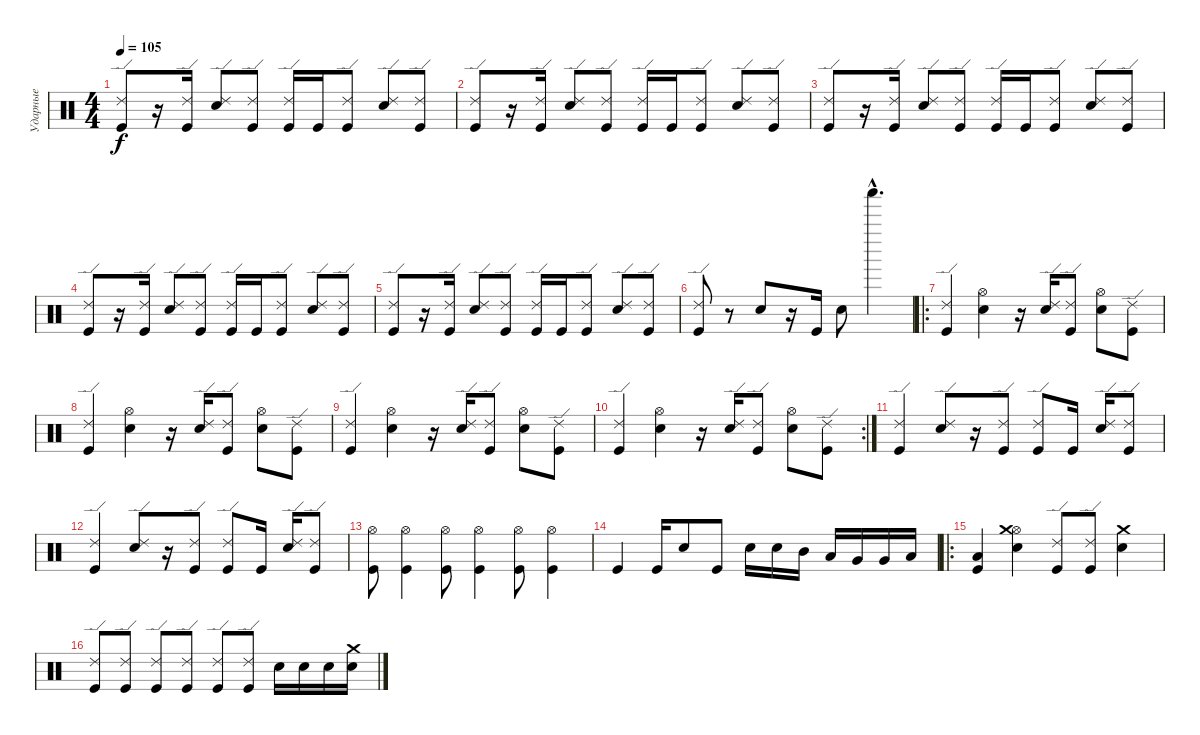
\track ("Ударные" "Ударные") {instrument percussion}
\staff {score}
\articulation defaults
\ts (4 4)
\tempo 105
\clef neutral
\ks c
("Ride (edge) 2" "Kick (hit)").8{dy f} r.16 ("Ride (edge) 2" "Kick (hit)").16 ("Ride (edge) 2" "Electric Snare (hit)").8 ("Ride (edge) 2" "Kick (hit)").8 ("Ride (edge) 2" "Kick (hit)").16 "Kick (hit)".16 ("Ride (edge) 2" "Kick (hit)").8 ("Ride (edge) 2" "Electric Snare (hit)").8 ("Ride (edge) 2" "Kick (hit)").8 |
("Ride (edge) 2" "Kick (hit)").8 r.16 ("Ride (edge) 2" "Kick (hit)").16 ("Ride (edge) 2" "Electric Snare (hit)").8 ("Ride (edge) 2" "Kick (hit)").8 ("Ride (edge) 2" "Kick (hit)").16 "Kick (hit)".16 ("Ride (edge) 2" "Kick (hit)").8 ("Ride (edge) 2" "Electric Snare (hit)").8 ("Ride (edge) 2" "Kick (hit)").8 |
("Ride (edge) 2" "Kick (hit)").8 r.16 ("Ride (edge) 2" "Kick (hit)").16 ("Ride (edge) 2" "Electric Snare (hit)").8 ("Ride (edge) 2" "Kick (hit)").8 ("Ride (edge) 2" "Kick (hit)").16 "Kick (hit)".16 ("Ride (edge) 2" "Kick (hit)").8 ("Ride (edge) 2" "Electric Snare (hit)").8 ("Ride (edge) 2" "Kick (hit)").8 |
("Ride (edge) 2" "Kick (hit)").8 r.16 ("Ride (edge) 2" "Kick (hit)").16 ("Ride (edge) 2" "Electric Snare (hit)").8 ("Ride (edge) 2" "Kick (hit)").8 ("Ride (edge) 2" "Kick (hit)").16 "Kick (hit)".16 ("Ride (edge) 2" "Kick (hit)").8 ("Ride (edge) 2" "Electric Snare (hit)").8 ("Ride (edge) 2" "Kick (hit)").8 |
("Ride (edge) 2" "Kick (hit)").8 r.16 ("Ride (edge) 2" "Kick (hit)").16 ("Ride (edge) 2" "Electric Snare (hit)").8 ("Ride (edge) 2" "Kick (hit)").8 ("Ride (edge) 2" "Kick (hit)").16 "Kick (hit)".16 ("Ride (edge) 2" "Kick (hit)").8 ("Ride (edge) 2" "Electric Snare (hit)").8 ("Ride (edge) 2" "Kick (hit)").8 |
("Ride (edge) 2" "Kick (hit)").8 r.8 "Electric Snare (hit)".8 r.16 "Kick (hit)".16 "Electric Snare (hit)".8 "Shaker (hit)"{hac}.4{d} |
\ro
("Ride (edge) 2" "Kick (hit)").4 ("Hi-Hat (open)" "Electric Snare (hit)").4 r.16 ("Ride (edge) 2" "Electric Snare (hit)").16 ("Ride (edge) 2" "Kick (hit)").8 ("Hi-Hat (open)" "Electric Snare (hit)").8 ("Ride (edge) 2" "Kick (hit)").8 |
("Ride (edge) 2" "Kick (hit)").4 ("Hi-Hat (open)" "Electric Snare (hit)").4 r.16 ("Ride (edge) 2" "Electric Snare (hit)").16 ("Ride (edge) 2" "Kick (hit)").8 ("Hi-Hat (open)" "Electric Snare (hit)").8 ("Ride (edge) 2" "Kick (hit)").8 |
("Ride (edge) 2" "Kick (hit)").4 ("Hi-Hat (open)" "Electric Snare (hit)").4 r.16 ("Ride (edge) 2" "Electric Snare (hit)").16 ("Ride (edge) 2" "Kick (hit)").8 ("Hi-Hat (open)" "Electric Snare (hit)").8 ("Ride (edge) 2" "Kick (hit)").8 |
\rc 2
("Ride (edge) 2" "Kick (hit)").4 ("Hi-Hat (open)" "Electric Snare (hit)").4 r.16 ("Ride (edge) 2" "Electric Snare (hit)").16 ("Ride (edge) 2" "Kick (hit)").8 ("Hi-Hat (open)" "Electric Snare (hit)").8 ("Ride (edge) 2" "Kick (hit)").8 |
("Ride (edge) 2" "Kick (hit)").4 ("Ride (edge) 2" "Electric Snare (hit)").8 r.16 ("Ride (edge) 2" "Kick (hit)").8 ("Ride (edge) 2" "Kick (hit)").8 "Kick (hit)".16 ("Ride (edge) 2" "Electric Snare (hit)").16 ("Ride (edge) 2" "Kick (hit)").8 |
("Ride (edge) 2" "Kick (hit)").4 ("Ride (edge) 2" "Electric Snare (hit)").8 r.16 ("Ride (edge) 2" "Kick (hit)").8 ("Ride (edge) 2" "Kick (hit)").8 "Kick (hit)".16 ("Ride (edge) 2" "Electric Snare (hit)").16 ("Ride (edge) 2" "Kick (hit)").8 |
("Hi-Hat (open)" "Kick (hit)").8 ("Hi-Hat (open)" "Kick (hit)").4 ("Hi-Hat (open)" "Kick (hit)").8 ("Hi-Hat (open)" "Kick (hit)").4 ("Hi-Hat (open)" "Kick (hit)").8 ("Hi-Hat (open)" "Kick (hit)").4 |
"Kick (hit)".4 "Kick (hit)".16 "Electric Snare (hit)".8 "Kick (hit)".8 "Electric Snare (hit)".16 "Electric Snare (hit)".16 "Mid Tom (hit)".16 "Low Tom (hit)".16 "Very Low Tom (hit)".16 "Very Low Tom (hit)".16 "Low Floor Tom (hit)".16 |
\ro
("Low Floor Tom (hit)" "Kick (hit)").4 ("Hi-Hat (open)" "Crash medium (hit)" "Electric Snare (hit)").4 ("Ride (edge) 2" "Kick (hit)").8 ("Ride (edge) 2" "Kick (hit)").8 ("Crash medium (hit)" "Electric Snare (hit)").4 |
("Ride (edge) 2" "Kick (hit)").8 ("Ride (edge) 2" "Kick (hit)").8 ("Ride (edge) 2" "Kick (hit)").8 ("Ride (edge) 2" "Kick (hit)").8 ("Ride (edge) 2" "Kick (hit)").8 ("Ride (edge) 2" "Kick (hit)").8 "Electric Snare (hit)".16 "Electric Snare (hit)".16 "Electric Snare (hit)".16 ("Crash medium (hit)" "Electric Snare (hit)").16
